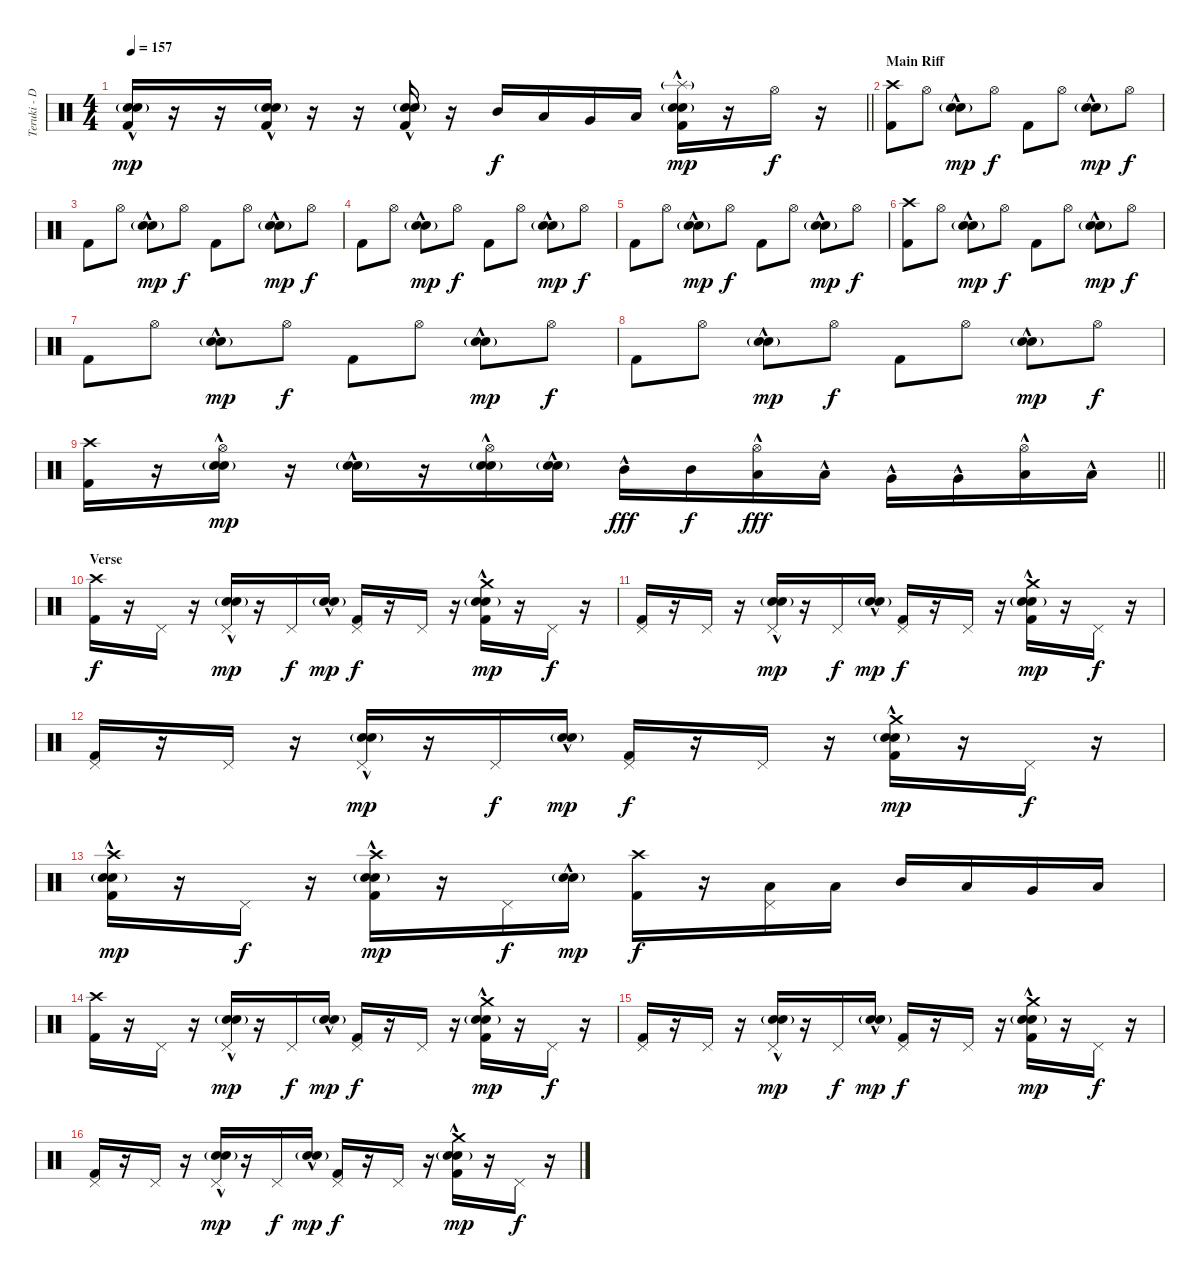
\track ("Teruki - Drums" "Teruki - D") {instrument percussion}
\staff {score}
\articulation defaults
\ts (4 4)
\tempo 157
\clef neutral
\barLineRight lightlight
\ks c
("Electric Snare (hit)"{hac} "Snare (hit) 2"{g} "Kick (hit) 2").16{dy mp} r.16 r.16 ("Electric Snare (hit)"{hac} "Snare (hit) 2"{g} "Kick (hit) 2").16 r.16 r.16 ("Electric Snare (hit)"{hac} "Snare (hit) 2"{g} "Kick (hit) 2").16 r.16 "Mid Tom (hit)".16{dy f} "Low Tom (hit)".16 "Very Low Tom (hit)".16 "Low Floor Tom (hit)".16 ("Splash (hit)"{g} "Electric Snare (hit)"{hac} "Snare (hit) 2"{g} "Kick (hit) 2").16{dy mp} r.16 "Hi-Hat (open)".16{dy f} r.16 |
\section ("" "Main Riff")
("Crash high (hit)" "Kick (hit) 2").8 "Hi-Hat (open)".8 ("Electric Snare (hit)"{hac} "Snare (hit) 2"{g}).8{dy mp} "Hi-Hat (open)".8{dy f} "Kick (hit) 2".8 "Hi-Hat (open)".8 ("Electric Snare (hit)"{hac} "Snare (hit) 2"{g}).8{dy mp} "Hi-Hat (open)".8{dy f} |
"Kick (hit) 2".8 "Hi-Hat (open)".8 ("Electric Snare (hit)"{hac} "Snare (hit) 2"{g}).8{dy mp} "Hi-Hat (open)".8{dy f} "Kick (hit) 2".8 "Hi-Hat (open)".8 ("Electric Snare (hit)"{hac} "Snare (hit) 2"{g}).8{dy mp} "Hi-Hat (open)".8{dy f} |
"Kick (hit) 2".8 "Hi-Hat (open)".8 ("Electric Snare (hit)"{hac} "Snare (hit) 2"{g}).8{dy mp} "Hi-Hat (open)".8{dy f} "Kick (hit) 2".8 "Hi-Hat (open)".8 ("Electric Snare (hit)"{hac} "Snare (hit) 2"{g}).8{dy mp} "Hi-Hat (open)".8{dy f} |
"Kick (hit) 2".8 "Hi-Hat (open)".8 ("Electric Snare (hit)"{hac} "Snare (hit) 2"{g}).8{dy mp} "Hi-Hat (open)".8{dy f} "Kick (hit) 2".8 "Hi-Hat (open)".8 ("Electric Snare (hit)"{hac} "Snare (hit) 2"{g}).8{dy mp} "Hi-Hat (open)".8{dy f} |
("Crash high (hit)" "Kick (hit) 2").8 "Hi-Hat (open)".8 ("Electric Snare (hit)"{hac} "Snare (hit) 2"{g}).8{dy mp} "Hi-Hat (open)".8{dy f} "Kick (hit) 2".8 "Hi-Hat (open)".8 ("Electric Snare (hit)"{hac} "Snare (hit) 2"{g}).8{dy mp} "Hi-Hat (open)".8{dy f} |
"Kick (hit) 2".8 "Hi-Hat (open)".8 ("Electric Snare (hit)"{hac} "Snare (hit) 2"{g}).8{dy mp} "Hi-Hat (open)".8{dy f} "Kick (hit) 2".8 "Hi-Hat (open)".8 ("Electric Snare (hit)"{hac} "Snare (hit) 2"{g}).8{dy mp} "Hi-Hat (open)".8{dy f} |
"Kick (hit) 2".8 "Hi-Hat (open)".8 ("Electric Snare (hit)"{hac} "Snare (hit) 2"{g}).8{dy mp} "Hi-Hat (open)".8{dy f} "Kick (hit) 2".8 "Hi-Hat (open)".8 ("Electric Snare (hit)"{hac} "Snare (hit) 2"{g}).8{dy mp} "Hi-Hat (open)".8{dy f} |
\barLineRight lightlight
("Crash high (hit)" "Kick (hit) 2").16 r.16 ("Hi-Hat (open)" "Electric Snare (hit)"{hac} "Snare (hit) 2"{g}).16{dy mp} r.16 ("Electric Snare (hit)"{hac} "Snare (hit) 2"{g}).16 r.16 ("Hi-Hat (open)" "Electric Snare (hit)"{hac} "Snare (hit) 2"{g}).16 ("Electric Snare (hit)"{hac} "Snare (hit) 2"{g}).16 "Mid Tom (hit)"{hac}.16{dy fff} "Mid Tom (hit)".16{dy f} ("Hi-Hat (open)" "Low Tom (hit)"{hac}).16{dy fff} "Low Tom (hit)"{hac}.16 "Very Low Tom (hit)"{hac}.16 "Very Low Tom (hit)"{hac}.16 ("Hi-Hat (open)" "Low Floor Tom (hit)"{hac}).16 "Low Floor Tom (hit)"{hac}.16 |
\section ("" "Verse")
("Crash high (hit)" "Kick (hit) 2").16{dy f} r.16 "Pedal Hi-Hat (hit)".16 r.16 ("Pedal Hi-Hat (hit)" "Electric Snare (hit)"{hac} "Snare (hit) 2"{g}).16{dy mp} r.16 "Pedal Hi-Hat (hit)".16{dy f} ("Electric Snare (hit)"{hac} "Snare (hit) 2"{g}).16{dy mp} ("Pedal Hi-Hat (hit)" "Kick (hit) 2").16{dy f} r.16 "Pedal Hi-Hat (hit)".16 r.16 ("Crash medium (hit)" "Electric Snare (hit)"{hac} "Snare (hit) 2"{g} "Kick (hit) 2").16{dy mp} r.16 "Pedal Hi-Hat (hit)".16{dy f} r.16 |
("Pedal Hi-Hat (hit)" "Kick (hit) 2").16 r.16 "Pedal Hi-Hat (hit)".16 r.16 ("Pedal Hi-Hat (hit)" "Electric Snare (hit)"{hac} "Snare (hit) 2"{g}).16{dy mp} r.16 "Pedal Hi-Hat (hit)".16{dy f} ("Electric Snare (hit)"{hac} "Snare (hit) 2"{g}).16{dy mp} ("Pedal Hi-Hat (hit)" "Kick (hit) 2").16{dy f} r.16 "Pedal Hi-Hat (hit)".16 r.16 ("Crash medium (hit)" "Electric Snare (hit)"{hac} "Snare (hit) 2"{g} "Kick (hit) 2").16{dy mp} r.16 "Pedal Hi-Hat (hit)".16{dy f} r.16 |
("Pedal Hi-Hat (hit)" "Kick (hit) 2").16 r.16 "Pedal Hi-Hat (hit)".16 r.16 ("Pedal Hi-Hat (hit)" "Electric Snare (hit)"{hac} "Snare (hit) 2"{g}).16{dy mp} r.16 "Pedal Hi-Hat (hit)".16{dy f} ("Electric Snare (hit)"{hac} "Snare (hit) 2"{g}).16{dy mp} ("Pedal Hi-Hat (hit)" "Kick (hit) 2").16{dy f} r.16 "Pedal Hi-Hat (hit)".16 r.16 ("Crash medium (hit)" "Electric Snare (hit)"{hac} "Snare (hit) 2"{g} "Kick (hit) 2").16{dy mp} r.16 "Pedal Hi-Hat (hit)".16{dy f} r.16 |
("Crash high (hit)" "Electric Snare (hit)"{hac} "Snare (hit) 2"{g} "Kick (hit) 2").16{dy mp} r.16 "Pedal Hi-Hat (hit)".16{dy f} r.16 ("Crash high (hit)" "Electric Snare (hit)"{hac} "Snare (hit) 2"{g} "Kick (hit) 2").16{dy mp} r.16 "Pedal Hi-Hat (hit)".16{dy f} ("Electric Snare (hit)"{hac} "Snare (hit) 2"{g}).16{dy mp} ("Crash high (hit)" "Kick (hit) 2").16{dy f} r.16 ("Pedal Hi-Hat (hit)" "Low Tom (hit)").16 "Low Tom (hit)".16 "Mid Tom (hit)".16 "Low Tom (hit)".16 "Very Low Tom (hit)".16 "Low Floor Tom (hit)".16 |
("Crash high (hit)" "Kick (hit) 2").16 r.16 "Pedal Hi-Hat (hit)".16 r.16 ("Pedal Hi-Hat (hit)" "Electric Snare (hit)"{hac} "Snare (hit) 2"{g}).16{dy mp} r.16 "Pedal Hi-Hat (hit)".16{dy f} ("Electric Snare (hit)"{hac} "Snare (hit) 2"{g}).16{dy mp} ("Pedal Hi-Hat (hit)" "Kick (hit) 2").16{dy f} r.16 "Pedal Hi-Hat (hit)".16 r.16 ("Crash medium (hit)" "Electric Snare (hit)"{hac} "Snare (hit) 2"{g} "Kick (hit) 2").16{dy mp} r.16 "Pedal Hi-Hat (hit)".16{dy f} r.16 |
("Pedal Hi-Hat (hit)" "Kick (hit) 2").16 r.16 "Pedal Hi-Hat (hit)".16 r.16 ("Pedal Hi-Hat (hit)" "Electric Snare (hit)"{hac} "Snare (hit) 2"{g}).16{dy mp} r.16 "Pedal Hi-Hat (hit)".16{dy f} ("Electric Snare (hit)"{hac} "Snare (hit) 2"{g}).16{dy mp} ("Pedal Hi-Hat (hit)" "Kick (hit) 2").16{dy f} r.16 "Pedal Hi-Hat (hit)".16 r.16 ("Crash medium (hit)" "Electric Snare (hit)"{hac} "Snare (hit) 2"{g} "Kick (hit) 2").16{dy mp} r.16 "Pedal Hi-Hat (hit)".16{dy f} r.16 |
("Pedal Hi-Hat (hit)" "Kick (hit) 2").16 r.16 "Pedal Hi-Hat (hit)".16 r.16 ("Pedal Hi-Hat (hit)" "Electric Snare (hit)"{hac} "Snare (hit) 2"{g}).16{dy mp} r.16 "Pedal Hi-Hat (hit)".16{dy f} ("Electric Snare (hit)"{hac} "Snare (hit) 2"{g}).16{dy mp} ("Pedal Hi-Hat (hit)" "Kick (hit) 2").16{dy f} r.16 "Pedal Hi-Hat (hit)".16 r.16 ("Crash medium (hit)" "Electric Snare (hit)"{hac} "Snare (hit) 2"{g} "Kick (hit) 2").16{dy mp} r.16 "Pedal Hi-Hat (hit)".16{dy f} r.16
